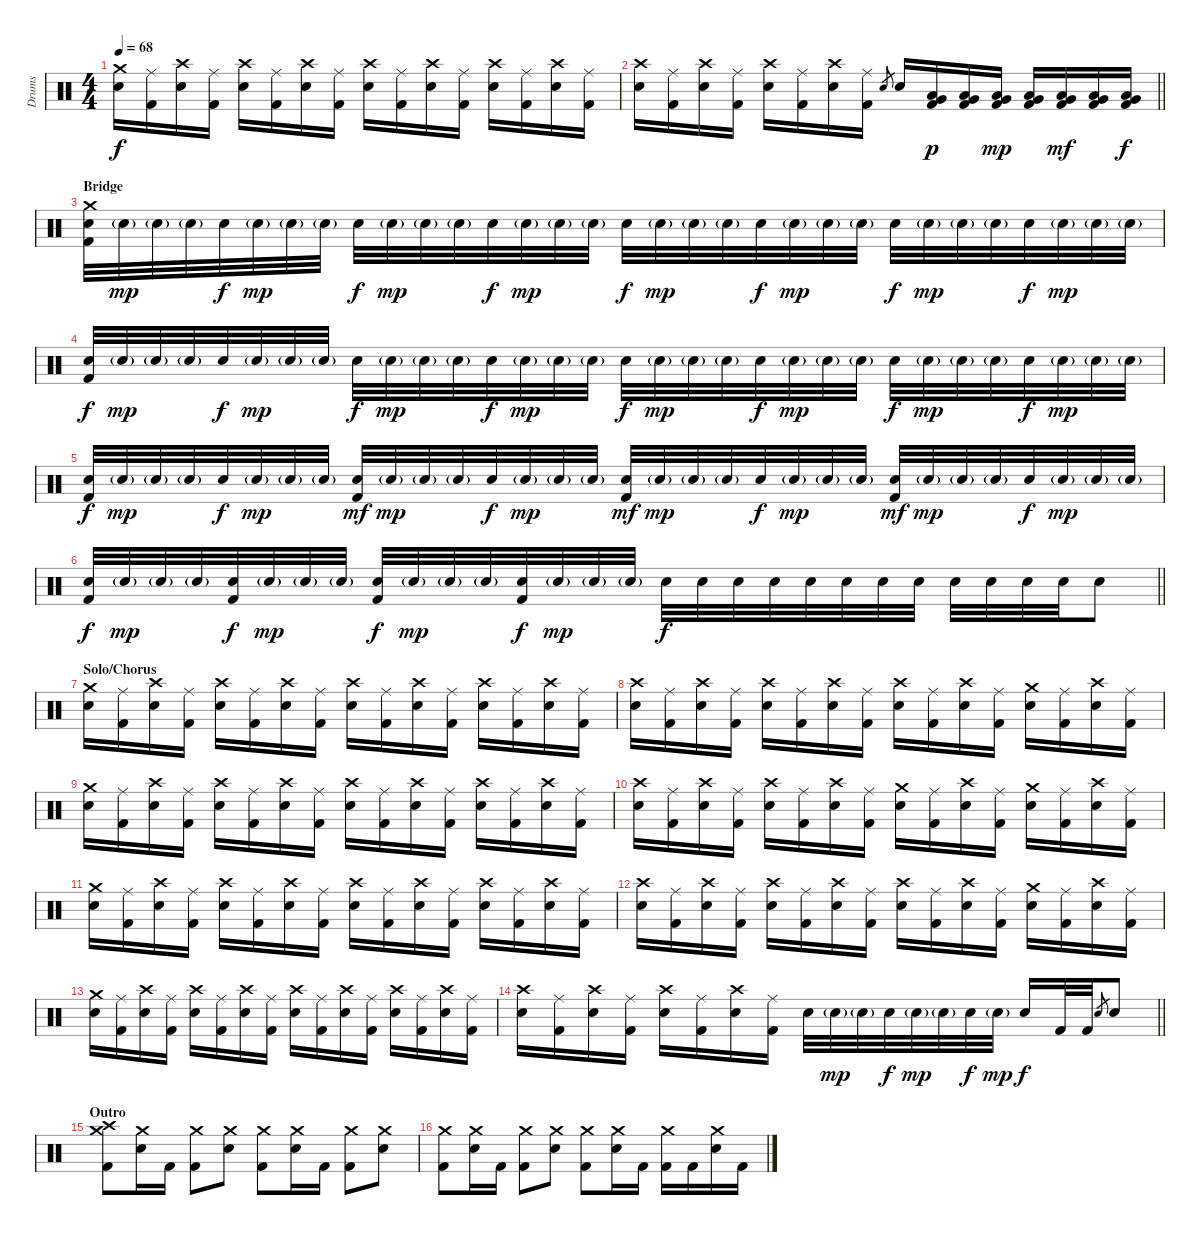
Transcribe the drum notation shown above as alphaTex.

\track ("Drums" "Drums") {instrument percussion}
\staff {score}
\articulation defaults
\ts (4 4)
\tempo 68
\clef neutral
\ks c
("Crash medium (hit)" "Electric Snare (hit)").16{dy f} ("Ride (middle)" "Kick (hit) 2").16 ("Crash high (hit)" "Electric Snare (hit)").16 ("Ride (middle)" "Kick (hit) 2").16 ("Crash high (hit)" "Electric Snare (hit)").16 ("Ride (middle)" "Kick (hit) 2").16 ("Crash high (hit)" "Electric Snare (hit)").16 ("Ride (middle)" "Kick (hit) 2").16 ("Crash high (hit)" "Electric Snare (hit)").16 ("Ride (middle)" "Kick (hit) 2").16 ("Crash high (hit)" "Electric Snare (hit)").16 ("Ride (middle)" "Kick (hit) 2").16 ("Crash high (hit)" "Electric Snare (hit)").16 ("Ride (middle)" "Kick (hit) 2").16 ("Crash high (hit)" "Electric Snare (hit)").16 ("Ride (middle)" "Kick (hit) 2").16 |
\barLineRight lightlight
("Crash high (hit)" "Electric Snare (hit)").16 ("Ride (middle)" "Kick (hit) 2").16 ("Crash high (hit)" "Electric Snare (hit)").16 ("Ride (middle)" "Kick (hit) 2").16 ("Crash high (hit)" "Electric Snare (hit)").16 ("Ride (middle)" "Kick (hit) 2").16 ("Crash high (hit)" "Electric Snare (hit)").16 ("Ride (middle)" "Kick (hit) 2").16 "Electric Snare (hit)".8{gr} "Electric Snare (hit)".16 ("Low Floor Tom (hit)" "Very Low Tom (hit)" "Kick (hit) 2").16{dy p} ("Low Floor Tom (hit)" "Very Low Tom (hit)" "Kick (hit) 2").16 ("Low Floor Tom (hit)" "Very Low Tom (hit)" "Kick (hit) 2").16{dy mp} ("Low Floor Tom (hit)" "Very Low Tom (hit)" "Kick (hit) 2").16 ("Low Floor Tom (hit)" "Very Low Tom (hit)" "Kick (hit) 2").16{dy mf} ("Low Floor Tom (hit)" "Very Low Tom (hit)" "Kick (hit) 2").16 ("Low Floor Tom (hit)" "Very Low Tom (hit)" "Kick (hit) 2").16{dy f} |
\section ("" "Bridge")
("Crash medium (hit)" "Electric Snare (hit)" "Kick (hit) 2").32 "Electric Snare (hit)"{g}.32{dy mp} "Electric Snare (hit)"{g}.32 "Electric Snare (hit)"{g}.32 "Electric Snare (hit)".32{dy f} "Electric Snare (hit)"{g}.32{dy mp} "Electric Snare (hit)"{g}.32 "Electric Snare (hit)"{g}.32 "Electric Snare (hit)".32{dy f} "Electric Snare (hit)"{g}.32{dy mp} "Electric Snare (hit)"{g}.32 "Electric Snare (hit)"{g}.32 "Electric Snare (hit)".32{dy f} "Electric Snare (hit)"{g}.32{dy mp} "Electric Snare (hit)"{g}.32 "Electric Snare (hit)"{g}.32 "Electric Snare (hit)".32{dy f} "Electric Snare (hit)"{g}.32{dy mp} "Electric Snare (hit)"{g}.32 "Electric Snare (hit)"{g}.32 "Electric Snare (hit)".32{dy f} "Electric Snare (hit)"{g}.32{dy mp} "Electric Snare (hit)"{g}.32 "Electric Snare (hit)"{g}.32 "Electric Snare (hit)".32{dy f} "Electric Snare (hit)"{g}.32{dy mp} "Electric Snare (hit)"{g}.32 "Electric Snare (hit)"{g}.32 "Electric Snare (hit)".32{dy f} "Electric Snare (hit)"{g}.32{dy mp} "Electric Snare (hit)"{g}.32 "Electric Snare (hit)"{g}.32 |
("Electric Snare (hit)" "Kick (hit) 2").32{dy f} "Electric Snare (hit)"{g}.32{dy mp} "Electric Snare (hit)"{g}.32 "Electric Snare (hit)"{g}.32 "Electric Snare (hit)".32{dy f} "Electric Snare (hit)"{g}.32{dy mp} "Electric Snare (hit)"{g}.32 "Electric Snare (hit)"{g}.32 "Electric Snare (hit)".32{dy f} "Electric Snare (hit)"{g}.32{dy mp} "Electric Snare (hit)"{g}.32 "Electric Snare (hit)"{g}.32 "Electric Snare (hit)".32{dy f} "Electric Snare (hit)"{g}.32{dy mp} "Electric Snare (hit)"{g}.32 "Electric Snare (hit)"{g}.32 "Electric Snare (hit)".32{dy f} "Electric Snare (hit)"{g}.32{dy mp} "Electric Snare (hit)"{g}.32 "Electric Snare (hit)"{g}.32 "Electric Snare (hit)".32{dy f} "Electric Snare (hit)"{g}.32{dy mp} "Electric Snare (hit)"{g}.32 "Electric Snare (hit)"{g}.32 "Electric Snare (hit)".32{dy f} "Electric Snare (hit)"{g}.32{dy mp} "Electric Snare (hit)"{g}.32 "Electric Snare (hit)"{g}.32 "Electric Snare (hit)".32{dy f} "Electric Snare (hit)"{g}.32{dy mp} "Electric Snare (hit)"{g}.32 "Electric Snare (hit)"{g}.32 |
("Electric Snare (hit)" "Kick (hit) 2").32{dy f} "Electric Snare (hit)"{g}.32{dy mp} "Electric Snare (hit)"{g}.32 "Electric Snare (hit)"{g}.32 "Electric Snare (hit)".32{dy f} "Electric Snare (hit)"{g}.32{dy mp} "Electric Snare (hit)"{g}.32 "Electric Snare (hit)"{g}.32 ("Electric Snare (hit)" "Kick (hit) 2").32{dy mf} "Electric Snare (hit)"{g}.32{dy mp} "Electric Snare (hit)"{g}.32 "Electric Snare (hit)"{g}.32 "Electric Snare (hit)".32{dy f} "Electric Snare (hit)"{g}.32{dy mp} "Electric Snare (hit)"{g}.32 "Electric Snare (hit)"{g}.32 ("Electric Snare (hit)" "Kick (hit) 2").32{dy mf} "Electric Snare (hit)"{g}.32{dy mp} "Electric Snare (hit)"{g}.32 "Electric Snare (hit)"{g}.32 "Electric Snare (hit)".32{dy f} "Electric Snare (hit)"{g}.32{dy mp} "Electric Snare (hit)"{g}.32 "Electric Snare (hit)"{g}.32 ("Electric Snare (hit)" "Kick (hit) 2").32{dy mf} "Electric Snare (hit)"{g}.32{dy mp} "Electric Snare (hit)"{g}.32 "Electric Snare (hit)"{g}.32 "Electric Snare (hit)".32{dy f} "Electric Snare (hit)"{g}.32{dy mp} "Electric Snare (hit)"{g}.32 "Electric Snare (hit)"{g}.32 |
\barLineRight lightlight
("Electric Snare (hit)" "Kick (hit) 2").32{dy f} "Electric Snare (hit)"{g}.32{dy mp} "Electric Snare (hit)"{g}.32 "Electric Snare (hit)"{g}.32 ("Electric Snare (hit)" "Kick (hit) 2").32{dy f} "Electric Snare (hit)"{g}.32{dy mp} "Electric Snare (hit)"{g}.32 "Electric Snare (hit)"{g}.32 ("Electric Snare (hit)" "Kick (hit) 2").32{dy f} "Electric Snare (hit)"{g}.32{dy mp} "Electric Snare (hit)"{g}.32 "Electric Snare (hit)"{g}.32 ("Electric Snare (hit)" "Kick (hit) 2").32{dy f} "Electric Snare (hit)"{g}.32{dy mp} "Electric Snare (hit)"{g}.32 "Electric Snare (hit)"{g}.32 "Electric Snare (hit)".32{dy f} "Electric Snare (hit)".32 "Electric Snare (hit)".32 "Electric Snare (hit)".32 "Electric Snare (hit)".32 "Electric Snare (hit)".32 "Electric Snare (hit)".32 "Electric Snare (hit)".32 "Electric Snare (hit)".32 "Electric Snare (hit)".32 "Electric Snare (hit)".32 "Electric Snare (hit)".32 "Electric Snare (hit)".8 |
\section ("" "Solo/Chorus")
("Crash medium (hit)" "Electric Snare (hit)").16 ("Ride (middle)" "Kick (hit) 2").16 ("Crash high (hit)" "Electric Snare (hit)").16 ("Ride (middle)" "Kick (hit) 2").16 ("Crash high (hit)" "Electric Snare (hit)").16 ("Ride (middle)" "Kick (hit) 2").16 ("Crash high (hit)" "Electric Snare (hit)").16 ("Ride (middle)" "Kick (hit) 2").16 ("Crash high (hit)" "Electric Snare (hit)").16 ("Ride (middle)" "Kick (hit) 2").16 ("Crash high (hit)" "Electric Snare (hit)").16 ("Ride (middle)" "Kick (hit) 2").16 ("Crash high (hit)" "Electric Snare (hit)").16 ("Ride (middle)" "Kick (hit) 2").16 ("Crash high (hit)" "Electric Snare (hit)").16 ("Ride (middle)" "Kick (hit) 2").16 |
("Crash high (hit)" "Electric Snare (hit)").16 ("Ride (middle)" "Kick (hit) 2").16 ("Crash high (hit)" "Electric Snare (hit)").16 ("Ride (middle)" "Kick (hit) 2").16 ("Crash high (hit)" "Electric Snare (hit)").16 ("Ride (middle)" "Kick (hit) 2").16 ("Crash high (hit)" "Electric Snare (hit)").16 ("Ride (middle)" "Kick (hit) 2").16 ("Crash high (hit)" "Electric Snare (hit)").16 ("Ride (middle)" "Kick (hit) 2").16 ("Crash high (hit)" "Electric Snare (hit)").16 ("Ride (middle)" "Kick (hit) 2").16 ("Crash medium (hit)" "Electric Snare (hit)").16 ("Ride (middle)" "Kick (hit) 2").16 ("Crash high (hit)" "Electric Snare (hit)").16 ("Ride (middle)" "Kick (hit) 2").16 |
("Crash medium (hit)" "Electric Snare (hit)").16 ("Ride (middle)" "Kick (hit) 2").16 ("Crash high (hit)" "Electric Snare (hit)").16 ("Ride (middle)" "Kick (hit) 2").16 ("Crash high (hit)" "Electric Snare (hit)").16 ("Ride (middle)" "Kick (hit) 2").16 ("Crash high (hit)" "Electric Snare (hit)").16 ("Ride (middle)" "Kick (hit) 2").16 ("Crash high (hit)" "Electric Snare (hit)").16 ("Ride (middle)" "Kick (hit) 2").16 ("Crash high (hit)" "Electric Snare (hit)").16 ("Ride (middle)" "Kick (hit) 2").16 ("Crash high (hit)" "Electric Snare (hit)").16 ("Ride (middle)" "Kick (hit) 2").16 ("Crash high (hit)" "Electric Snare (hit)").16 ("Ride (middle)" "Kick (hit) 2").16 |
("Crash high (hit)" "Electric Snare (hit)").16 ("Ride (middle)" "Kick (hit) 2").16 ("Crash high (hit)" "Electric Snare (hit)").16 ("Ride (middle)" "Kick (hit) 2").16 ("Crash high (hit)" "Electric Snare (hit)").16 ("Ride (middle)" "Kick (hit) 2").16 ("Crash high (hit)" "Electric Snare (hit)").16 ("Ride (middle)" "Kick (hit) 2").16 ("Crash medium (hit)" "Electric Snare (hit)").16 ("Ride (middle)" "Kick (hit) 2").16 ("Crash high (hit)" "Electric Snare (hit)").16 ("Ride (middle)" "Kick (hit) 2").16 ("Crash medium (hit)" "Electric Snare (hit)").16 ("Ride (middle)" "Kick (hit) 2").16 ("Crash high (hit)" "Electric Snare (hit)").16 ("Ride (middle)" "Kick (hit) 2").16 |
("Crash medium (hit)" "Electric Snare (hit)").16 ("Ride (middle)" "Kick (hit) 2").16 ("Crash high (hit)" "Electric Snare (hit)").16 ("Ride (middle)" "Kick (hit) 2").16 ("Crash high (hit)" "Electric Snare (hit)").16 ("Ride (middle)" "Kick (hit) 2").16 ("Crash high (hit)" "Electric Snare (hit)").16 ("Ride (middle)" "Kick (hit) 2").16 ("Crash high (hit)" "Electric Snare (hit)").16 ("Ride (middle)" "Kick (hit) 2").16 ("Crash high (hit)" "Electric Snare (hit)").16 ("Ride (middle)" "Kick (hit) 2").16 ("Crash high (hit)" "Electric Snare (hit)").16 ("Ride (middle)" "Kick (hit) 2").16 ("Crash high (hit)" "Electric Snare (hit)").16 ("Ride (middle)" "Kick (hit) 2").16 |
("Crash high (hit)" "Electric Snare (hit)").16 ("Ride (middle)" "Kick (hit) 2").16 ("Crash high (hit)" "Electric Snare (hit)").16 ("Ride (middle)" "Kick (hit) 2").16 ("Crash high (hit)" "Electric Snare (hit)").16 ("Ride (middle)" "Kick (hit) 2").16 ("Crash high (hit)" "Electric Snare (hit)").16 ("Ride (middle)" "Kick (hit) 2").16 ("Crash high (hit)" "Electric Snare (hit)").16 ("Ride (middle)" "Kick (hit) 2").16 ("Crash high (hit)" "Electric Snare (hit)").16 ("Ride (middle)" "Kick (hit) 2").16 ("Crash medium (hit)" "Electric Snare (hit)").16 ("Ride (middle)" "Kick (hit) 2").16 ("Crash high (hit)" "Electric Snare (hit)").16 ("Ride (middle)" "Kick (hit) 2").16 |
("Crash medium (hit)" "Electric Snare (hit)").16 ("Ride (middle)" "Kick (hit) 2").16 ("Crash high (hit)" "Electric Snare (hit)").16 ("Ride (middle)" "Kick (hit) 2").16 ("Crash high (hit)" "Electric Snare (hit)").16 ("Ride (middle)" "Kick (hit) 2").16 ("Crash high (hit)" "Electric Snare (hit)").16 ("Ride (middle)" "Kick (hit) 2").16 ("Crash high (hit)" "Electric Snare (hit)").16 ("Ride (middle)" "Kick (hit) 2").16 ("Crash high (hit)" "Electric Snare (hit)").16 ("Ride (middle)" "Kick (hit) 2").16 ("Crash high (hit)" "Electric Snare (hit)").16 ("Ride (middle)" "Kick (hit) 2").16 ("Crash high (hit)" "Electric Snare (hit)").16 ("Ride (middle)" "Kick (hit) 2").16 |
\barLineRight lightlight
("Crash high (hit)" "Electric Snare (hit)").16 ("Ride (middle)" "Kick (hit) 2").16 ("Crash high (hit)" "Electric Snare (hit)").16 ("Ride (middle)" "Kick (hit) 2").16 ("Crash high (hit)" "Electric Snare (hit)").16 ("Ride (middle)" "Kick (hit) 2").16 ("Crash high (hit)" "Electric Snare (hit)").16 ("Ride (middle)" "Kick (hit) 2").16 "Electric Snare (hit)".32 "Electric Snare (hit)"{g}.32{dy mp} "Electric Snare (hit)"{g}.32 "Electric Snare (hit)".32{dy f} "Electric Snare (hit)"{g}.32{dy mp} "Electric Snare (hit)"{g}.32 "Electric Snare (hit)".32{dy f} "Electric Snare (hit)"{g}.32{dy mp} "Electric Snare (hit)".16{dy f} "Kick (hit) 2".32 "Kick (hit) 2".32 "Electric Snare (hit)".8{gr} "Electric Snare (hit)".8 |
\section ("" "Outro")
("Crash medium (hit)" "Crash high (hit)" "Kick (hit) 2").8 ("Crash medium (hit)" "Electric Snare (hit)").16 "Kick (hit) 2".16 ("Crash medium (hit)" "Kick (hit) 2").8 ("Crash medium (hit)" "Electric Snare (hit)").8 ("Crash medium (hit)" "Kick (hit) 2").8 ("Crash medium (hit)" "Electric Snare (hit)").16 "Kick (hit) 2".16 ("Crash medium (hit)" "Kick (hit) 2").8 ("Crash medium (hit)" "Electric Snare (hit)").8 |
("Crash medium (hit)" "Kick (hit) 2").8 ("Crash medium (hit)" "Electric Snare (hit)").16 "Kick (hit) 2".16 ("Crash medium (hit)" "Kick (hit) 2").8 ("Crash medium (hit)" "Electric Snare (hit)").8 ("Crash medium (hit)" "Kick (hit) 2").8 ("Crash medium (hit)" "Electric Snare (hit)").16 "Kick (hit) 2".16 ("Crash medium (hit)" "Kick (hit) 2").16 "Kick (hit) 2".16 ("Crash medium (hit)" "Electric Snare (hit)").16 "Kick (hit) 2".16
